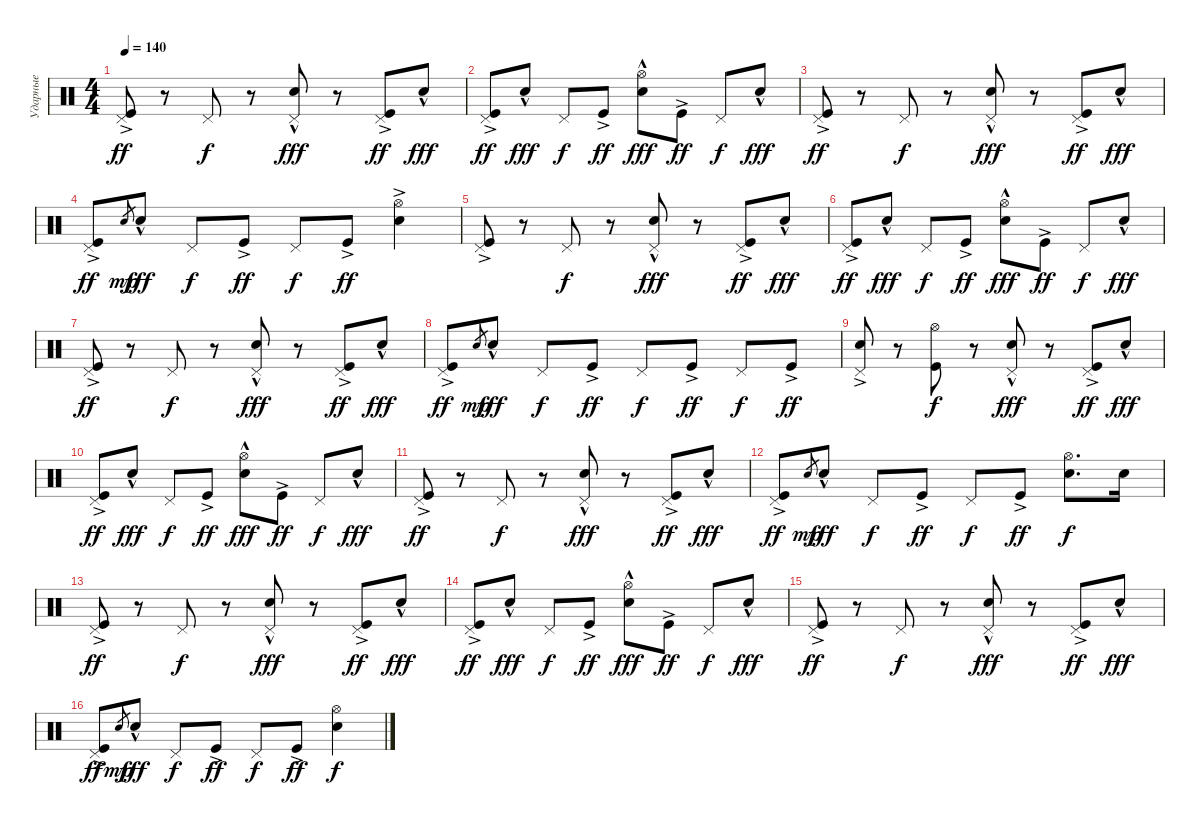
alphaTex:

\track ("Ударные" "Ударные") {instrument percussion}
\staff {score}
\articulation defaults
\ts (4 4)
\tempo 140
\clef neutral
\ks c
("Kick (hit)"{ac} "Pedal Hi-Hat (hit)").8{dy ff} r.8 "Pedal Hi-Hat (hit)".8{dy f} r.8 ("Electric Snare (hit)"{hac} "Pedal Hi-Hat (hit)").8{dy fff} r.8 ("Kick (hit)"{ac} "Pedal Hi-Hat (hit)").8{dy ff} "Electric Snare (hit)"{hac}.8{dy fff} |
("Kick (hit)"{ac} "Pedal Hi-Hat (hit)").8{dy ff} "Electric Snare (hit)"{hac}.8{dy fff} "Pedal Hi-Hat (hit)".8{dy f} "Kick (hit)"{ac}.8{dy ff} ("Electric Snare (hit)"{hac} "Hi-Hat (open)").8{dy fff} "Kick (hit)"{ac}.8{dy ff} "Pedal Hi-Hat (hit)".8{dy f} "Electric Snare (hit)"{hac}.8{dy fff} |
("Kick (hit)"{ac} "Pedal Hi-Hat (hit)").8{dy ff} r.8 "Pedal Hi-Hat (hit)".8{dy f} r.8 ("Electric Snare (hit)"{hac} "Pedal Hi-Hat (hit)").8{dy fff} r.8 ("Kick (hit)"{ac} "Pedal Hi-Hat (hit)").8{dy ff} "Electric Snare (hit)"{hac}.8{dy fff} |
("Kick (hit)"{ac} "Pedal Hi-Hat (hit)").8{dy ff} "Electric Snare (hit)".8{gr dy mp} "Electric Snare (hit)"{hac}.8{dy fff} "Pedal Hi-Hat (hit)".8{dy f} "Kick (hit)"{ac}.8{dy ff} "Pedal Hi-Hat (hit)".8{dy f} "Kick (hit)"{ac}.8{dy ff} ("Electric Snare (hit)"{ac} "Hi-Hat (open)").4 |
("Kick (hit)"{ac} "Pedal Hi-Hat (hit)").8 r.8 "Pedal Hi-Hat (hit)".8{dy f} r.8 ("Electric Snare (hit)"{hac} "Pedal Hi-Hat (hit)").8{dy fff} r.8 ("Kick (hit)"{ac} "Pedal Hi-Hat (hit)").8{dy ff} "Electric Snare (hit)"{hac}.8{dy fff} |
("Kick (hit)"{ac} "Pedal Hi-Hat (hit)").8{dy ff} "Electric Snare (hit)"{hac}.8{dy fff} "Pedal Hi-Hat (hit)".8{dy f} "Kick (hit)"{ac}.8{dy ff} ("Electric Snare (hit)"{hac} "Hi-Hat (open)").8{dy fff} "Kick (hit)"{ac}.8{dy ff} "Pedal Hi-Hat (hit)".8{dy f} "Electric Snare (hit)"{hac}.8{dy fff} |
("Kick (hit)"{ac} "Pedal Hi-Hat (hit)").8{dy ff} r.8 "Pedal Hi-Hat (hit)".8{dy f} r.8 ("Electric Snare (hit)"{hac} "Pedal Hi-Hat (hit)").8{dy fff} r.8 ("Kick (hit)"{ac} "Pedal Hi-Hat (hit)").8{dy ff} "Electric Snare (hit)"{hac}.8{dy fff} |
("Kick (hit)"{ac} "Pedal Hi-Hat (hit)").8{dy ff} "Electric Snare (hit)".8{gr dy mp} "Electric Snare (hit)"{hac}.8{dy fff} "Pedal Hi-Hat (hit)".8{dy f} "Kick (hit)"{ac}.8{dy ff} "Pedal Hi-Hat (hit)".8{dy f} "Kick (hit)"{ac}.8{dy ff} "Pedal Hi-Hat (hit)".8{dy f} "Kick (hit)"{ac}.8{dy ff} |
("Electric Snare (hit)"{ac} "Pedal Hi-Hat (hit)").8 r.8 ("Kick (hit)" "Hi-Hat (open)").8{dy f} r.8 ("Electric Snare (hit)"{hac} "Pedal Hi-Hat (hit)").8{dy fff} r.8 ("Kick (hit)"{ac} "Pedal Hi-Hat (hit)").8{dy ff} "Electric Snare (hit)"{hac}.8{dy fff} |
("Kick (hit)"{ac} "Pedal Hi-Hat (hit)").8{dy ff} "Electric Snare (hit)"{hac}.8{dy fff} "Pedal Hi-Hat (hit)".8{dy f} "Kick (hit)"{ac}.8{dy ff} ("Electric Snare (hit)"{hac} "Hi-Hat (open)").8{dy fff} "Kick (hit)"{ac}.8{dy ff} "Pedal Hi-Hat (hit)".8{dy f} "Electric Snare (hit)"{hac}.8{dy fff} |
("Kick (hit)"{ac} "Pedal Hi-Hat (hit)").8{dy ff} r.8 "Pedal Hi-Hat (hit)".8{dy f} r.8 ("Electric Snare (hit)"{hac} "Pedal Hi-Hat (hit)").8{dy fff} r.8 ("Kick (hit)"{ac} "Pedal Hi-Hat (hit)").8{dy ff} "Electric Snare (hit)"{hac}.8{dy fff} |
("Kick (hit)"{ac} "Pedal Hi-Hat (hit)").8{dy ff} "Electric Snare (hit)".8{gr dy mp} "Electric Snare (hit)"{hac}.8{dy fff} "Pedal Hi-Hat (hit)".8{dy f} "Kick (hit)"{ac}.8{dy ff} "Pedal Hi-Hat (hit)".8{dy f} "Kick (hit)"{ac}.8{dy ff} ("Electric Snare (hit)" "Hi-Hat (open)").8{d dy f} "Electric Snare (hit)".16 |
("Kick (hit)"{ac} "Pedal Hi-Hat (hit)").8{dy ff} r.8 "Pedal Hi-Hat (hit)".8{dy f} r.8 ("Electric Snare (hit)"{hac} "Pedal Hi-Hat (hit)").8{dy fff} r.8 ("Kick (hit)"{ac} "Pedal Hi-Hat (hit)").8{dy ff} "Electric Snare (hit)"{hac}.8{dy fff} |
("Kick (hit)"{ac} "Pedal Hi-Hat (hit)").8{dy ff} "Electric Snare (hit)"{hac}.8{dy fff} "Pedal Hi-Hat (hit)".8{dy f} "Kick (hit)"{ac}.8{dy ff} ("Electric Snare (hit)"{hac} "Hi-Hat (open)").8{dy fff} "Kick (hit)"{ac}.8{dy ff} "Pedal Hi-Hat (hit)".8{dy f} "Electric Snare (hit)"{hac}.8{dy fff} |
("Kick (hit)"{ac} "Pedal Hi-Hat (hit)").8{dy ff} r.8 "Pedal Hi-Hat (hit)".8{dy f} r.8 ("Electric Snare (hit)"{hac} "Pedal Hi-Hat (hit)").8{dy fff} r.8 ("Kick (hit)"{ac} "Pedal Hi-Hat (hit)").8{dy ff} "Electric Snare (hit)"{hac}.8{dy fff} |
("Kick (hit)"{ac} "Pedal Hi-Hat (hit)").8{dy ff} "Electric Snare (hit)".8{gr dy mp} "Electric Snare (hit)"{hac}.8{dy fff} "Pedal Hi-Hat (hit)".8{dy f} "Kick (hit)"{ac}.8{dy ff} "Pedal Hi-Hat (hit)".8{dy f} "Kick (hit)"{ac}.8{dy ff} ("Electric Snare (hit)" "Hi-Hat (open)").4{dy f}
